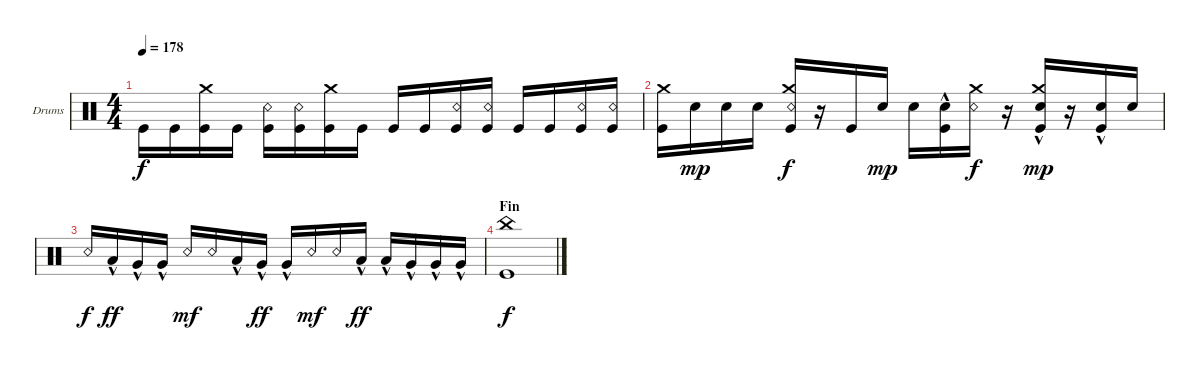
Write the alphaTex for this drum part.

\bracketExtendMode groupsimilarinstruments
\firstSystemTrackNameOrientation horizontal
\otherSystemsTrackNameOrientation horizontal
\track ("Drumkit" "Drums") {instrument percussion}
\staff {score}
\articulation defaults
\ts (4 4)
\tempo 178
\clef neutral
\ks c "Kick (hit)".16{dy f} "Kick (hit)".16
("Kick (hit)" "Crash medium (hit)").16 "Kick (hit)".16 ("Kick (hit)" "Snare (rim shot)").16 ("Kick (hit)" "Snare (rim shot)").16 ("Kick (hit)" "Crash medium (hit)").16 "Kick (hit)".16 "Kick (hit)".16 "Kick (hit)".16 ("Kick (hit)" "Snare (rim shot)").16 ("Kick (hit)" "Snare (rim shot)").16 "Kick (hit)".16 "Kick (hit)".16 ("Kick (hit)" "Snare (rim shot)").16 ("Kick (hit)" "Snare (rim shot)").16 |
("Kick (hit)" "Crash medium (hit)").16 "Snare (hit) 2".16{dy mp} "Snare (hit) 2".16 "Snare (hit) 2".16 ("Snare (rim shot)" "Kick (hit)" "Crash medium (hit)").16{dy f} r.16 "Kick (hit)".16 "Snare (hit) 2".16{dy mp} "Snare (hit) 2".16 ("Snare (hit) 2" "Kick (hit)"{hac}).16 ("Snare (rim shot)" "Crash medium (hit)").16{dy f} r.16 ("Kick (hit)"{hac} "Crash medium (hit)"{hac} "Snare (hit) 2").16{dy mp} r.16 ("Kick (hit)"{hac} "Snare (hit) 2").16 "Snare (hit) 2".16 |
"Snare (rim shot)".16{dy f} "Low Tom (hit)"{hac}.16{dy ff} "Very Low Tom (hit)"{hac}.16 "Very Low Tom (hit)"{hac}.16 "Snare (rim shot)".16{dy mf} "Snare (rim shot)".16 "Low Tom (hit)"{hac}.16 "Very Low Tom (hit)"{hac}.16{dy ff} "Very Low Tom (hit)"{hac}.16 "Snare (rim shot)".16{dy mf} "Snare (rim shot)".16 "Low Tom (hit)"{hac}.16{dy ff} "Low Tom (hit)"{hac}.16 "Very Low Tom (hit)"{hac}.16 "Very Low Tom (hit)"{hac}.16 "Very Low Tom (hit)"{hac}.16 |
\section ("" "Fin")
("Kick (hit)" "China (hit)").1{dy f}
